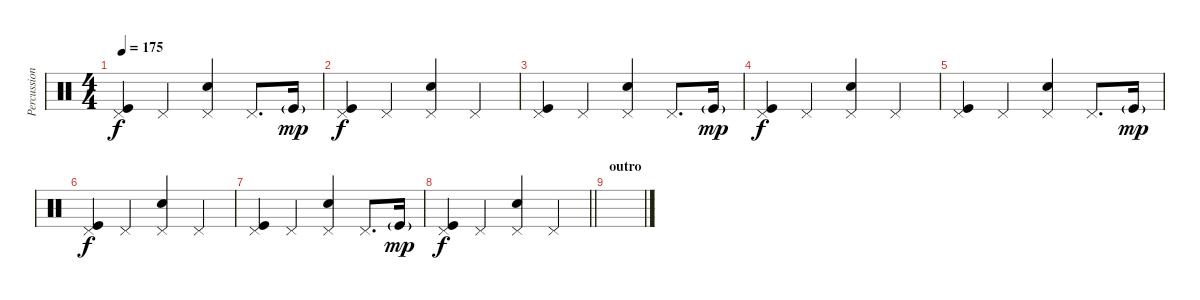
\track ("Percussion" "Percussion") {instrument percussion}
\staff {score}
\articulation defaults
\ts (4 4)
\tempo 175
\clef neutral
\ks c
("Pedal Hi-Hat (hit)" "Kick (hit)").4{dy f} "Pedal Hi-Hat (hit)".4 ("Pedal Hi-Hat (hit)" "Electric Snare (hit)").4 "Pedal Hi-Hat (hit)".8{d} "Kick (hit)"{g}.16{dy mp} |
("Pedal Hi-Hat (hit)" "Kick (hit)").4{dy f} "Pedal Hi-Hat (hit)".4 ("Pedal Hi-Hat (hit)" "Electric Snare (hit)").4 "Pedal Hi-Hat (hit)".4 |
("Pedal Hi-Hat (hit)" "Kick (hit)").4 "Pedal Hi-Hat (hit)".4 ("Pedal Hi-Hat (hit)" "Electric Snare (hit)").4 "Pedal Hi-Hat (hit)".8{d} "Kick (hit)"{g}.16{dy mp} |
("Pedal Hi-Hat (hit)" "Kick (hit)").4{dy f} "Pedal Hi-Hat (hit)".4 ("Pedal Hi-Hat (hit)" "Electric Snare (hit)").4 "Pedal Hi-Hat (hit)".4 |
("Pedal Hi-Hat (hit)" "Kick (hit)").4 "Pedal Hi-Hat (hit)".4 ("Pedal Hi-Hat (hit)" "Electric Snare (hit)").4 "Pedal Hi-Hat (hit)".8{d} "Kick (hit)"{g}.16{dy mp} |
("Pedal Hi-Hat (hit)" "Kick (hit)").4{dy f} "Pedal Hi-Hat (hit)".4 ("Pedal Hi-Hat (hit)" "Electric Snare (hit)").4 "Pedal Hi-Hat (hit)".4 |
("Pedal Hi-Hat (hit)" "Kick (hit)").4 "Pedal Hi-Hat (hit)".4 ("Pedal Hi-Hat (hit)" "Electric Snare (hit)").4 "Pedal Hi-Hat (hit)".8{d} "Kick (hit)"{g}.16{dy mp} |
\barLineRight lightlight
("Pedal Hi-Hat (hit)" "Kick (hit)").4{dy f} "Pedal Hi-Hat (hit)".4 ("Pedal Hi-Hat (hit)" "Electric Snare (hit)").4 "Pedal Hi-Hat (hit)".4 |
\section ("" "outro")
